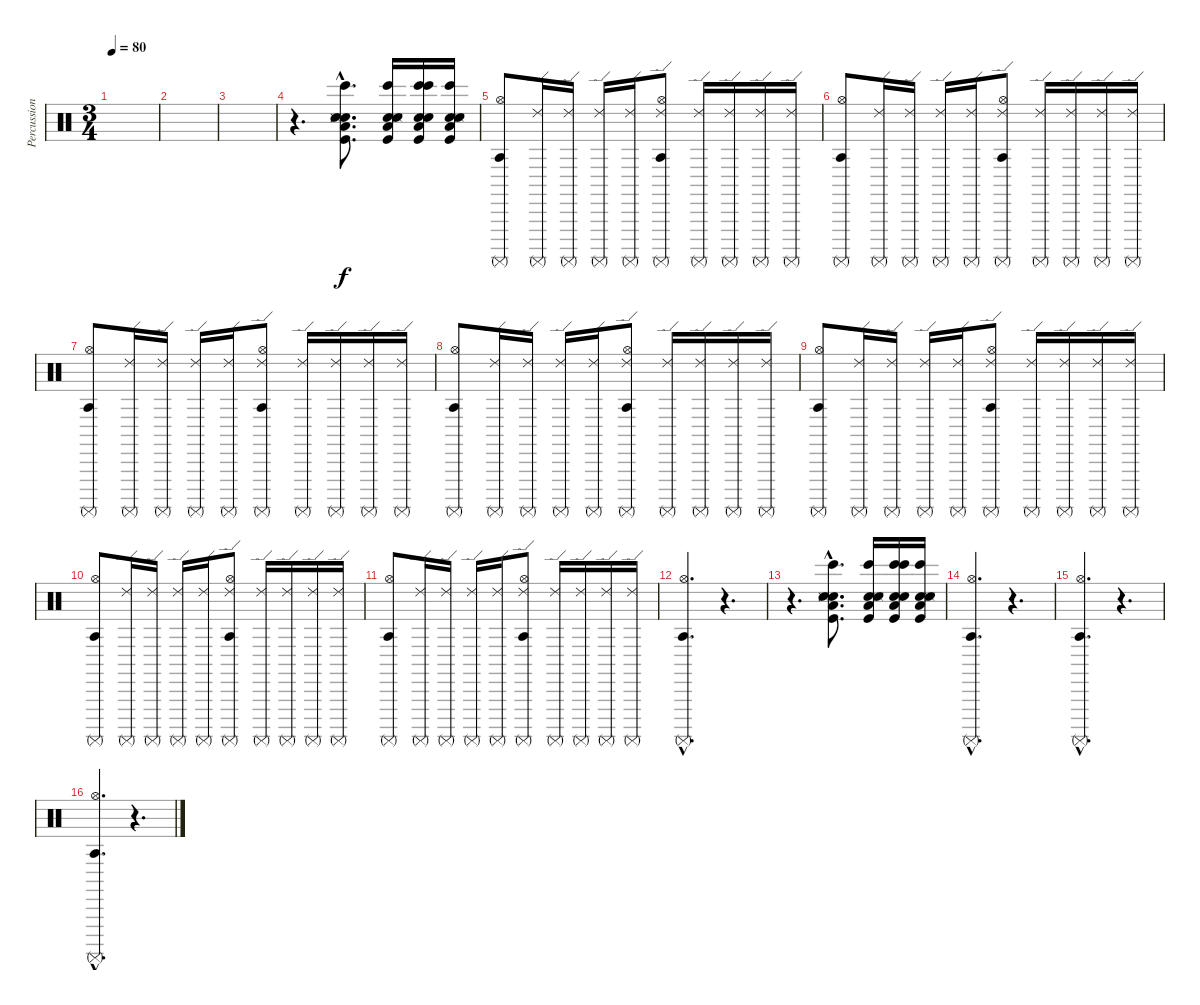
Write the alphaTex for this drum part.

\track ("Percussion" "Percussion") {instrument percussion}
\staff {score}
\articulation defaults
\ts (3 4)
\tempo 80
\clef neutral
\ks c
|
|
|
r.4{d} ("Low Tom (hit)"{hac} "Electric Snare (hit)"{hac} "Bongo High (hit)"{hac} "Kick (hit)"{hac} "Electric Snare (hit)"{hac} "Snare (side stick) 3"{hac}).8{d} ("Low Tom (hit)" "Electric Snare (hit)" "Bongo High (hit)" "Kick (hit)" "Electric Snare (hit)" "Snare (side stick) 3").16 ("Low Tom (hit)" "Electric Snare (hit)" "Bongo High (hit)" "Kick (hit)" "Electric Snare (hit)" "Bongo High (hit)").16 ("Low Tom (hit)" "Electric Snare (hit)" "Bongo High (hit)" "Kick (hit)" "Electric Snare (hit)" "Snare (side stick) 3").16 |
("Surdo (mute)" "Hi-Hat (open)" "Agogo tow (hit)").8 ("Surdo (mute)" "Ride (edge) 2").16 ("Surdo (mute)" "Ride (edge) 2").16 ("Surdo (mute)" "Ride (edge) 2").16 ("Surdo (mute)" "Ride (edge) 2").16 ("Surdo (mute)" "Hi-Hat (open)" "Agogo tow (hit)" "Ride (edge) 2").8 ("Surdo (mute)" "Ride (edge) 2").16 ("Surdo (mute)" "Ride (edge) 2").16 ("Surdo (mute)" "Ride (edge) 2").16 ("Surdo (mute)" "Ride (edge) 2").16 |
("Surdo (mute)" "Hi-Hat (open)" "Agogo tow (hit)").8 ("Surdo (mute)" "Ride (edge) 2").16 ("Surdo (mute)" "Ride (edge) 2").16 ("Surdo (mute)" "Ride (edge) 2").16 ("Surdo (mute)" "Ride (edge) 2").16 ("Surdo (mute)" "Hi-Hat (open)" "Agogo tow (hit)" "Ride (edge) 2").8 ("Surdo (mute)" "Ride (edge) 2").16 ("Surdo (mute)" "Ride (edge) 2").16 ("Surdo (mute)" "Ride (edge) 2").16 ("Surdo (mute)" "Ride (edge) 2").16 |
("Surdo (mute)" "Hi-Hat (open)" "Agogo tow (hit)").8 ("Surdo (mute)" "Ride (edge) 2").16 ("Surdo (mute)" "Ride (edge) 2").16 ("Surdo (mute)" "Ride (edge) 2").16 ("Surdo (mute)" "Ride (edge) 2").16 ("Surdo (mute)" "Hi-Hat (open)" "Agogo tow (hit)" "Ride (edge) 2").8 ("Surdo (mute)" "Ride (edge) 2").16 ("Surdo (mute)" "Ride (edge) 2").16 ("Surdo (mute)" "Ride (edge) 2").16 ("Surdo (mute)" "Ride (edge) 2").16 |
("Surdo (mute)" "Hi-Hat (open)" "Agogo tow (hit)").8 ("Surdo (mute)" "Ride (edge) 2").16 ("Surdo (mute)" "Ride (edge) 2").16 ("Surdo (mute)" "Ride (edge) 2").16 ("Surdo (mute)" "Ride (edge) 2").16 ("Surdo (mute)" "Hi-Hat (open)" "Agogo tow (hit)" "Ride (edge) 2").8 ("Surdo (mute)" "Ride (edge) 2").16 ("Surdo (mute)" "Ride (edge) 2").16 ("Surdo (mute)" "Ride (edge) 2").16 ("Surdo (mute)" "Ride (edge) 2").16 |
("Surdo (mute)" "Hi-Hat (open)" "Agogo tow (hit)").8 ("Surdo (mute)" "Ride (edge) 2").16 ("Surdo (mute)" "Ride (edge) 2").16 ("Surdo (mute)" "Ride (edge) 2").16 ("Surdo (mute)" "Ride (edge) 2").16 ("Surdo (mute)" "Hi-Hat (open)" "Agogo tow (hit)" "Ride (edge) 2").8 ("Surdo (mute)" "Ride (edge) 2").16 ("Surdo (mute)" "Ride (edge) 2").16 ("Surdo (mute)" "Ride (edge) 2").16 ("Surdo (mute)" "Ride (edge) 2").16 |
("Surdo (mute)" "Hi-Hat (open)" "Agogo tow (hit)").8 ("Surdo (mute)" "Ride (edge) 2").16 ("Surdo (mute)" "Ride (edge) 2").16 ("Surdo (mute)" "Ride (edge) 2").16 ("Surdo (mute)" "Ride (edge) 2").16 ("Surdo (mute)" "Hi-Hat (open)" "Agogo tow (hit)" "Ride (edge) 2").8 ("Surdo (mute)" "Ride (edge) 2").16 ("Surdo (mute)" "Ride (edge) 2").16 ("Surdo (mute)" "Ride (edge) 2").16 ("Surdo (mute)" "Ride (edge) 2").16 |
("Surdo (mute)" "Hi-Hat (open)" "Agogo tow (hit)").8 ("Surdo (mute)" "Ride (edge) 2").16 ("Surdo (mute)" "Ride (edge) 2").16 ("Surdo (mute)" "Ride (edge) 2").16 ("Surdo (mute)" "Ride (edge) 2").16 ("Surdo (mute)" "Hi-Hat (open)" "Agogo tow (hit)" "Ride (edge) 2").8 ("Surdo (mute)" "Ride (edge) 2").16 ("Surdo (mute)" "Ride (edge) 2").16 ("Surdo (mute)" "Ride (edge) 2").16 ("Surdo (mute)" "Ride (edge) 2").16 |
("Surdo (mute)"{hac} "Hi-Hat (open)"{hac} "Agogo tow (hit)"{hac}).4{d} r.4{d} |
r.4{d} ("Low Tom (hit)"{hac} "Electric Snare (hit)"{hac} "Bongo High (hit)"{hac} "Kick (hit)"{hac} "Electric Snare (hit)"{hac} "Snare (side stick) 3"{hac}).8{d} ("Low Tom (hit)" "Electric Snare (hit)" "Bongo High (hit)" "Kick (hit)" "Electric Snare (hit)" "Snare (side stick) 3").16 ("Low Tom (hit)" "Electric Snare (hit)" "Bongo High (hit)" "Kick (hit)" "Electric Snare (hit)" "Bongo High (hit)").16 ("Low Tom (hit)" "Electric Snare (hit)" "Bongo High (hit)" "Kick (hit)" "Electric Snare (hit)" "Snare (side stick) 3").16 |
("Surdo (mute)"{hac} "Hi-Hat (open)"{hac} "Agogo tow (hit)"{hac}).4{d} r.4{d} |
("Surdo (mute)"{hac} "Hi-Hat (open)"{hac} "Agogo tow (hit)"{hac}).4{d} r.4{d} |
("Surdo (mute)"{hac} "Hi-Hat (open)"{hac} "Agogo tow (hit)"{hac}).4{d} r.4{d}
